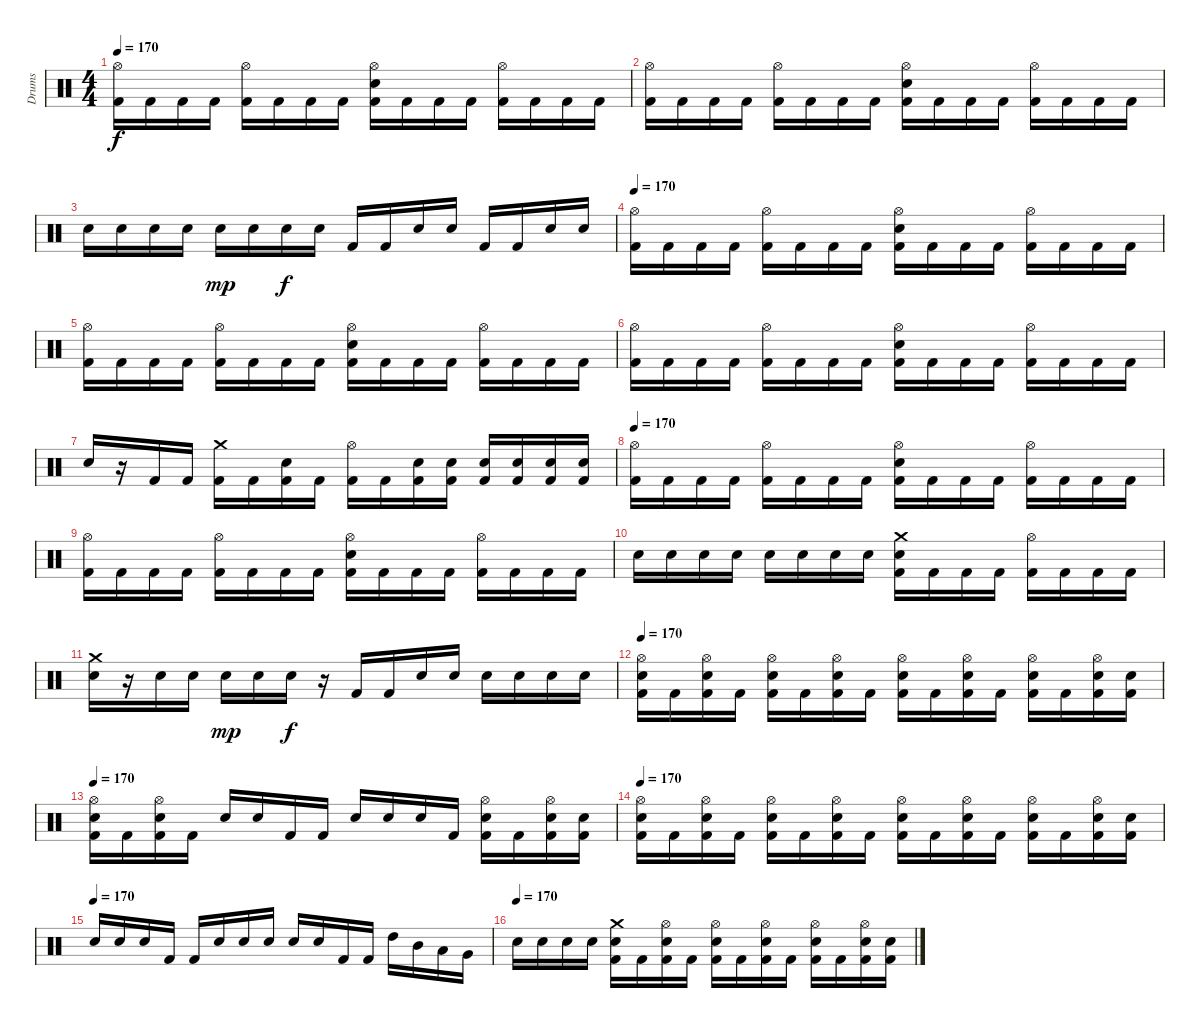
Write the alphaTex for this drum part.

\track ("Drums" "Drums") {instrument percussion}
\staff {score}
\articulation defaults
\ts (4 4)
\tempo 170
\clef neutral
\ks c
("Hi-Hat (open)" "Kick (hit) 2").16{dy f} "Kick (hit) 2".16 "Kick (hit) 2".16 "Kick (hit) 2".16 ("Hi-Hat (open)" "Kick (hit) 2").16 "Kick (hit) 2".16 "Kick (hit) 2".16 "Kick (hit) 2".16 ("Hi-Hat (open)" "Electric Snare (hit)" "Kick (hit) 2").16 "Kick (hit) 2".16 "Kick (hit) 2".16 "Kick (hit) 2".16 ("Hi-Hat (open)" "Kick (hit) 2").16 "Kick (hit) 2".16 "Kick (hit) 2".16 "Kick (hit) 2".16 |
("Hi-Hat (open)" "Kick (hit) 2").16 "Kick (hit) 2".16 "Kick (hit) 2".16 "Kick (hit) 2".16 ("Hi-Hat (open)" "Kick (hit) 2").16 "Kick (hit) 2".16 "Kick (hit) 2".16 "Kick (hit) 2".16 ("Hi-Hat (open)" "Electric Snare (hit)" "Kick (hit) 2").16 "Kick (hit) 2".16 "Kick (hit) 2".16 "Kick (hit) 2".16 ("Hi-Hat (open)" "Kick (hit) 2").16 "Kick (hit) 2".16 "Kick (hit) 2".16 "Kick (hit) 2".16 |
"Electric Snare (hit)".16 "Electric Snare (hit)".16 "Electric Snare (hit)".16 "Electric Snare (hit)".16 "Electric Snare (hit)".16{dy mp} "Electric Snare (hit)".16 "Electric Snare (hit)".16{dy f} "Electric Snare (hit)".16 "Kick (hit) 2".16 "Kick (hit) 2".16 "Electric Snare (hit)".16 "Electric Snare (hit)".16 "Kick (hit) 2".16 "Kick (hit) 2".16 "Electric Snare (hit)".16 "Electric Snare (hit)".16 |
\tempo 170
("Hi-Hat (open)" "Kick (hit) 2").16 "Kick (hit) 2".16 "Kick (hit) 2".16 "Kick (hit) 2".16 ("Hi-Hat (open)" "Kick (hit) 2").16 "Kick (hit) 2".16 "Kick (hit) 2".16 "Kick (hit) 2".16 ("Hi-Hat (open)" "Electric Snare (hit)" "Kick (hit) 2").16 "Kick (hit) 2".16 "Kick (hit) 2".16 "Kick (hit) 2".16 ("Hi-Hat (open)" "Kick (hit) 2").16 "Kick (hit) 2".16 "Kick (hit) 2".16 "Kick (hit) 2".16 |
("Hi-Hat (open)" "Kick (hit) 2").16 "Kick (hit) 2".16 "Kick (hit) 2".16 "Kick (hit) 2".16 ("Hi-Hat (open)" "Kick (hit) 2").16 "Kick (hit) 2".16 "Kick (hit) 2".16 "Kick (hit) 2".16 ("Hi-Hat (open)" "Electric Snare (hit)" "Kick (hit) 2").16 "Kick (hit) 2".16 "Kick (hit) 2".16 "Kick (hit) 2".16 ("Hi-Hat (open)" "Kick (hit) 2").16 "Kick (hit) 2".16 "Kick (hit) 2".16 "Kick (hit) 2".16 |
("Hi-Hat (open)" "Kick (hit) 2").16 "Kick (hit) 2".16 "Kick (hit) 2".16 "Kick (hit) 2".16 ("Hi-Hat (open)" "Kick (hit) 2").16 "Kick (hit) 2".16 "Kick (hit) 2".16 "Kick (hit) 2".16 ("Hi-Hat (open)" "Electric Snare (hit)" "Kick (hit) 2").16 "Kick (hit) 2".16 "Kick (hit) 2".16 "Kick (hit) 2".16 ("Hi-Hat (open)" "Kick (hit) 2").16 "Kick (hit) 2".16 "Kick (hit) 2".16 "Kick (hit) 2".16 |
"Electric Snare (hit)".16 r.16 "Kick (hit) 2".16 "Kick (hit) 2".16 ("Crash medium (hit)" "Kick (hit) 2").16 "Kick (hit) 2".16 ("Electric Snare (hit)" "Kick (hit) 2").16 "Kick (hit) 2".16 ("Hi-Hat (open)" "Kick (hit) 2").16 "Kick (hit) 2".16 ("Electric Snare (hit)" "Kick (hit) 2").16 ("Electric Snare (hit)" "Kick (hit) 2").16 ("Electric Snare (hit)" "Kick (hit) 2").16 ("Electric Snare (hit)" "Kick (hit) 2").16 ("Electric Snare (hit)" "Kick (hit) 2").16 ("Electric Snare (hit)" "Kick (hit) 2").16 |
\tempo 170
("Hi-Hat (open)" "Kick (hit) 2").16 "Kick (hit) 2".16 "Kick (hit) 2".16 "Kick (hit) 2".16 ("Hi-Hat (open)" "Kick (hit) 2").16 "Kick (hit) 2".16 "Kick (hit) 2".16 "Kick (hit) 2".16 ("Hi-Hat (open)" "Electric Snare (hit)" "Kick (hit) 2").16 "Kick (hit) 2".16 "Kick (hit) 2".16 "Kick (hit) 2".16 ("Hi-Hat (open)" "Kick (hit) 2").16 "Kick (hit) 2".16 "Kick (hit) 2".16 "Kick (hit) 2".16 |
("Hi-Hat (open)" "Kick (hit) 2").16 "Kick (hit) 2".16 "Kick (hit) 2".16 "Kick (hit) 2".16 ("Hi-Hat (open)" "Kick (hit) 2").16 "Kick (hit) 2".16 "Kick (hit) 2".16 "Kick (hit) 2".16 ("Hi-Hat (open)" "Electric Snare (hit)" "Kick (hit) 2").16 "Kick (hit) 2".16 "Kick (hit) 2".16 "Kick (hit) 2".16 ("Hi-Hat (open)" "Kick (hit) 2").16 "Kick (hit) 2".16 "Kick (hit) 2".16 "Kick (hit) 2".16 |
"Electric Snare (hit)".16 "Electric Snare (hit)".16 "Electric Snare (hit)".16 "Electric Snare (hit)".16 "Electric Snare (hit)".16 "Electric Snare (hit)".16 "Electric Snare (hit)".16 "Electric Snare (hit)".16 ("Crash medium (hit)" "Electric Snare (hit)" "Kick (hit) 2").16 "Kick (hit) 2".16 "Kick (hit) 2".16 "Kick (hit) 2".16 ("Hi-Hat (open)" "Kick (hit) 2").16 "Kick (hit) 2".16 "Kick (hit) 2".16 "Kick (hit) 2".16 |
("Crash medium (hit)" "Electric Snare (hit)").16 r.16 "Electric Snare (hit)".16 "Electric Snare (hit)".16 "Electric Snare (hit)".16{dy mp} "Electric Snare (hit)".16 "Electric Snare (hit)".16{dy f} r.16 "Kick (hit) 2".16 "Kick (hit) 2".16 "Electric Snare (hit)".16 "Electric Snare (hit)".16 "Electric Snare (hit)".16 "Electric Snare (hit)".16 "Electric Snare (hit)".16 "Electric Snare (hit)".16 |
\tempo 170
("Hi-Hat (open)" "Electric Snare (hit)" "Kick (hit) 2").16 "Kick (hit) 2".16 ("Hi-Hat (open)" "Electric Snare (hit)" "Kick (hit) 2").16 "Kick (hit) 2".16 ("Hi-Hat (open)" "Electric Snare (hit)" "Kick (hit) 2").16 "Kick (hit) 2".16 ("Hi-Hat (open)" "Electric Snare (hit)" "Kick (hit) 2").16 "Kick (hit) 2".16 ("Hi-Hat (open)" "Electric Snare (hit)" "Kick (hit) 2").16 "Kick (hit) 2".16 ("Hi-Hat (open)" "Electric Snare (hit)" "Kick (hit) 2").16 "Kick (hit) 2".16 ("Hi-Hat (open)" "Electric Snare (hit)" "Kick (hit) 2").16 "Kick (hit) 2".16 ("Hi-Hat (open)" "Electric Snare (hit)" "Kick (hit) 2").16 ("Electric Snare (hit)" "Kick (hit) 2").16 |
\tempo 170
("Hi-Hat (open)" "Electric Snare (hit)" "Kick (hit) 2").16 "Kick (hit) 2".16 ("Hi-Hat (open)" "Electric Snare (hit)" "Kick (hit) 2").16 "Kick (hit) 2".16 "Electric Snare (hit)".16 "Electric Snare (hit)".16 "Kick (hit) 2".16 "Kick (hit) 2".16 "Electric Snare (hit)".16 "Electric Snare (hit)".16 "Electric Snare (hit)".16 "Kick (hit) 2".16 ("Hi-Hat (open)" "Electric Snare (hit)" "Kick (hit) 2").16 "Kick (hit) 2".16 ("Hi-Hat (open)" "Electric Snare (hit)" "Kick (hit) 2").16 ("Electric Snare (hit)" "Kick (hit) 2").16 |
\tempo 170
("Hi-Hat (open)" "Electric Snare (hit)" "Kick (hit) 2").16 "Kick (hit) 2".16 ("Hi-Hat (open)" "Electric Snare (hit)" "Kick (hit) 2").16 "Kick (hit) 2".16 ("Hi-Hat (open)" "Electric Snare (hit)" "Kick (hit) 2").16 "Kick (hit) 2".16 ("Hi-Hat (open)" "Electric Snare (hit)" "Kick (hit) 2").16 "Kick (hit) 2".16 ("Hi-Hat (open)" "Electric Snare (hit)" "Kick (hit) 2").16 "Kick (hit) 2".16 ("Hi-Hat (open)" "Electric Snare (hit)" "Kick (hit) 2").16 "Kick (hit) 2".16 ("Hi-Hat (open)" "Electric Snare (hit)" "Kick (hit) 2").16 "Kick (hit) 2".16 ("Hi-Hat (open)" "Electric Snare (hit)" "Kick (hit) 2").16 ("Electric Snare (hit)" "Kick (hit) 2").16 |
\tempo (170)
"Electric Snare (hit)".16 "Electric Snare (hit)".16 "Electric Snare (hit)".16 "Kick (hit) 2".16 "Kick (hit) 2".16 "Electric Snare (hit)".16 "Electric Snare (hit)".16 "Electric Snare (hit)".16 "Electric Snare (hit)".16 "Electric Snare (hit)".16 "Kick (hit) 2".16 "Kick (hit) 2".16 "High Tom (hit)".16 "Mid Tom (hit)".16 "Low Tom (hit)".16 "Very Low Tom (hit)".16 |
\tempo (170)
"Electric Snare (hit)".16 "Electric Snare (hit)".16 "Electric Snare (hit)".16 "Electric Snare (hit)".16 ("Crash medium (hit)" "Electric Snare (hit)" "Kick (hit) 2").16 "Kick (hit) 2".16 ("Hi-Hat (open)" "Electric Snare (hit)" "Kick (hit) 2").16 "Kick (hit) 2".16 ("Hi-Hat (open)" "Electric Snare (hit)" "Kick (hit) 2").16 "Kick (hit) 2".16 ("Hi-Hat (open)" "Electric Snare (hit)" "Kick (hit) 2").16 "Kick (hit) 2".16 ("Hi-Hat (open)" "Electric Snare (hit)" "Kick (hit) 2").16 "Kick (hit) 2".16 ("Hi-Hat (open)" "Electric Snare (hit)" "Kick (hit) 2").16 ("Electric Snare (hit)" "Kick (hit) 2").16
